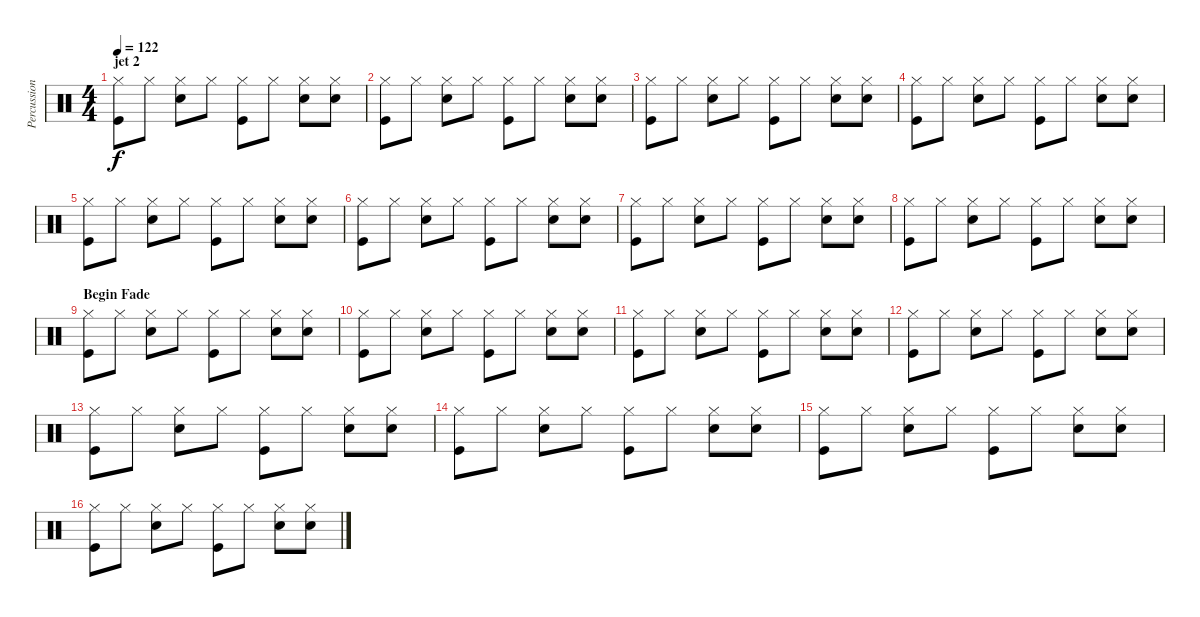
\track ("Percussions" "Percussion") {instrument percussion}
\staff {score}
\articulation defaults
\ts (4 4)
\section ("" "jet 2")
\tempo 122
\clef neutral
\ks c
("Hi-Hat (closed)" "Kick (hit)").8{dy f} "Hi-Hat (closed)".8 ("Hi-Hat (closed)" "Snare (hit) 2").8 "Hi-Hat (closed)".8 ("Hi-Hat (closed)" "Kick (hit)").8 "Hi-Hat (closed)".8 ("Hi-Hat (closed)" "Snare (hit) 2").8 ("Hi-Hat (closed)" "Snare (hit) 2").8 |
("Hi-Hat (closed)" "Kick (hit)").8 "Hi-Hat (closed)".8 ("Hi-Hat (closed)" "Snare (hit) 2").8 "Hi-Hat (closed)".8 ("Hi-Hat (closed)" "Kick (hit)").8 "Hi-Hat (closed)".8 ("Hi-Hat (closed)" "Snare (hit) 2").8 ("Hi-Hat (closed)" "Snare (hit) 2").8 |
("Hi-Hat (closed)" "Kick (hit)").8 "Hi-Hat (closed)".8 ("Hi-Hat (closed)" "Snare (hit) 2").8 "Hi-Hat (closed)".8 ("Hi-Hat (closed)" "Kick (hit)").8 "Hi-Hat (closed)".8 ("Hi-Hat (closed)" "Snare (hit) 2").8 ("Hi-Hat (closed)" "Snare (hit) 2").8 |
("Hi-Hat (closed)" "Kick (hit)").8 "Hi-Hat (closed)".8 ("Hi-Hat (closed)" "Snare (hit) 2").8 "Hi-Hat (closed)".8 ("Hi-Hat (closed)" "Kick (hit)").8 "Hi-Hat (closed)".8 ("Hi-Hat (closed)" "Snare (hit) 2").8 ("Hi-Hat (closed)" "Snare (hit) 2").8 |
("Hi-Hat (closed)" "Kick (hit)").8 "Hi-Hat (closed)".8 ("Hi-Hat (closed)" "Snare (hit) 2").8 "Hi-Hat (closed)".8 ("Hi-Hat (closed)" "Kick (hit)").8 "Hi-Hat (closed)".8 ("Hi-Hat (closed)" "Snare (hit) 2").8 ("Hi-Hat (closed)" "Snare (hit) 2").8 |
("Hi-Hat (closed)" "Kick (hit)").8 "Hi-Hat (closed)".8 ("Hi-Hat (closed)" "Snare (hit) 2").8 "Hi-Hat (closed)".8 ("Hi-Hat (closed)" "Kick (hit)").8 "Hi-Hat (closed)".8 ("Hi-Hat (closed)" "Snare (hit) 2").8 ("Hi-Hat (closed)" "Snare (hit) 2").8 |
("Hi-Hat (closed)" "Kick (hit)").8 "Hi-Hat (closed)".8 ("Hi-Hat (closed)" "Snare (hit) 2").8 "Hi-Hat (closed)".8 ("Hi-Hat (closed)" "Kick (hit)").8 "Hi-Hat (closed)".8 ("Hi-Hat (closed)" "Snare (hit) 2").8 ("Hi-Hat (closed)" "Snare (hit) 2").8 |
("Hi-Hat (closed)" "Kick (hit)").8 "Hi-Hat (closed)".8 ("Hi-Hat (closed)" "Snare (hit) 2").8 "Hi-Hat (closed)".8 ("Hi-Hat (closed)" "Kick (hit)").8 "Hi-Hat (closed)".8 ("Hi-Hat (closed)" "Snare (hit) 2").8 ("Hi-Hat (closed)" "Snare (hit) 2").8 |
\section ("" "Begin Fade")
("Hi-Hat (closed)" "Kick (hit)").8 "Hi-Hat (closed)".8 ("Hi-Hat (closed)" "Snare (hit) 2").8 "Hi-Hat (closed)".8 ("Hi-Hat (closed)" "Kick (hit)").8 "Hi-Hat (closed)".8 ("Hi-Hat (closed)" "Snare (hit) 2").8 ("Hi-Hat (closed)" "Snare (hit) 2").8 |
("Hi-Hat (closed)" "Kick (hit)").8 "Hi-Hat (closed)".8 ("Hi-Hat (closed)" "Snare (hit) 2").8 "Hi-Hat (closed)".8 ("Hi-Hat (closed)" "Kick (hit)").8 "Hi-Hat (closed)".8 ("Hi-Hat (closed)" "Snare (hit) 2").8 ("Hi-Hat (closed)" "Snare (hit) 2").8 |
("Hi-Hat (closed)" "Kick (hit)").8 "Hi-Hat (closed)".8 ("Hi-Hat (closed)" "Snare (hit) 2").8 "Hi-Hat (closed)".8 ("Hi-Hat (closed)" "Kick (hit)").8 "Hi-Hat (closed)".8 ("Hi-Hat (closed)" "Snare (hit) 2").8 ("Hi-Hat (closed)" "Snare (hit) 2").8 |
("Hi-Hat (closed)" "Kick (hit)").8 "Hi-Hat (closed)".8 ("Hi-Hat (closed)" "Snare (hit) 2").8 "Hi-Hat (closed)".8 ("Hi-Hat (closed)" "Kick (hit)").8 "Hi-Hat (closed)".8 ("Hi-Hat (closed)" "Snare (hit) 2").8 ("Hi-Hat (closed)" "Snare (hit) 2").8 |
("Hi-Hat (closed)" "Kick (hit)").8 "Hi-Hat (closed)".8 ("Hi-Hat (closed)" "Snare (hit) 2").8 "Hi-Hat (closed)".8 ("Hi-Hat (closed)" "Kick (hit)").8 "Hi-Hat (closed)".8 ("Hi-Hat (closed)" "Snare (hit) 2").8 ("Hi-Hat (closed)" "Snare (hit) 2").8 |
("Hi-Hat (closed)" "Kick (hit)").8 "Hi-Hat (closed)".8 ("Hi-Hat (closed)" "Snare (hit) 2").8 "Hi-Hat (closed)".8 ("Hi-Hat (closed)" "Kick (hit)").8 "Hi-Hat (closed)".8 ("Hi-Hat (closed)" "Snare (hit) 2").8 ("Hi-Hat (closed)" "Snare (hit) 2").8 |
("Hi-Hat (closed)" "Kick (hit)").8 "Hi-Hat (closed)".8 ("Hi-Hat (closed)" "Snare (hit) 2").8 "Hi-Hat (closed)".8 ("Hi-Hat (closed)" "Kick (hit)").8 "Hi-Hat (closed)".8 ("Hi-Hat (closed)" "Snare (hit) 2").8 ("Hi-Hat (closed)" "Snare (hit) 2").8 |
("Hi-Hat (closed)" "Kick (hit)").8 "Hi-Hat (closed)".8 ("Hi-Hat (closed)" "Snare (hit) 2").8 "Hi-Hat (closed)".8 ("Hi-Hat (closed)" "Kick (hit)").8 "Hi-Hat (closed)".8 ("Hi-Hat (closed)" "Snare (hit) 2").8 ("Hi-Hat (closed)" "Snare (hit) 2").8
